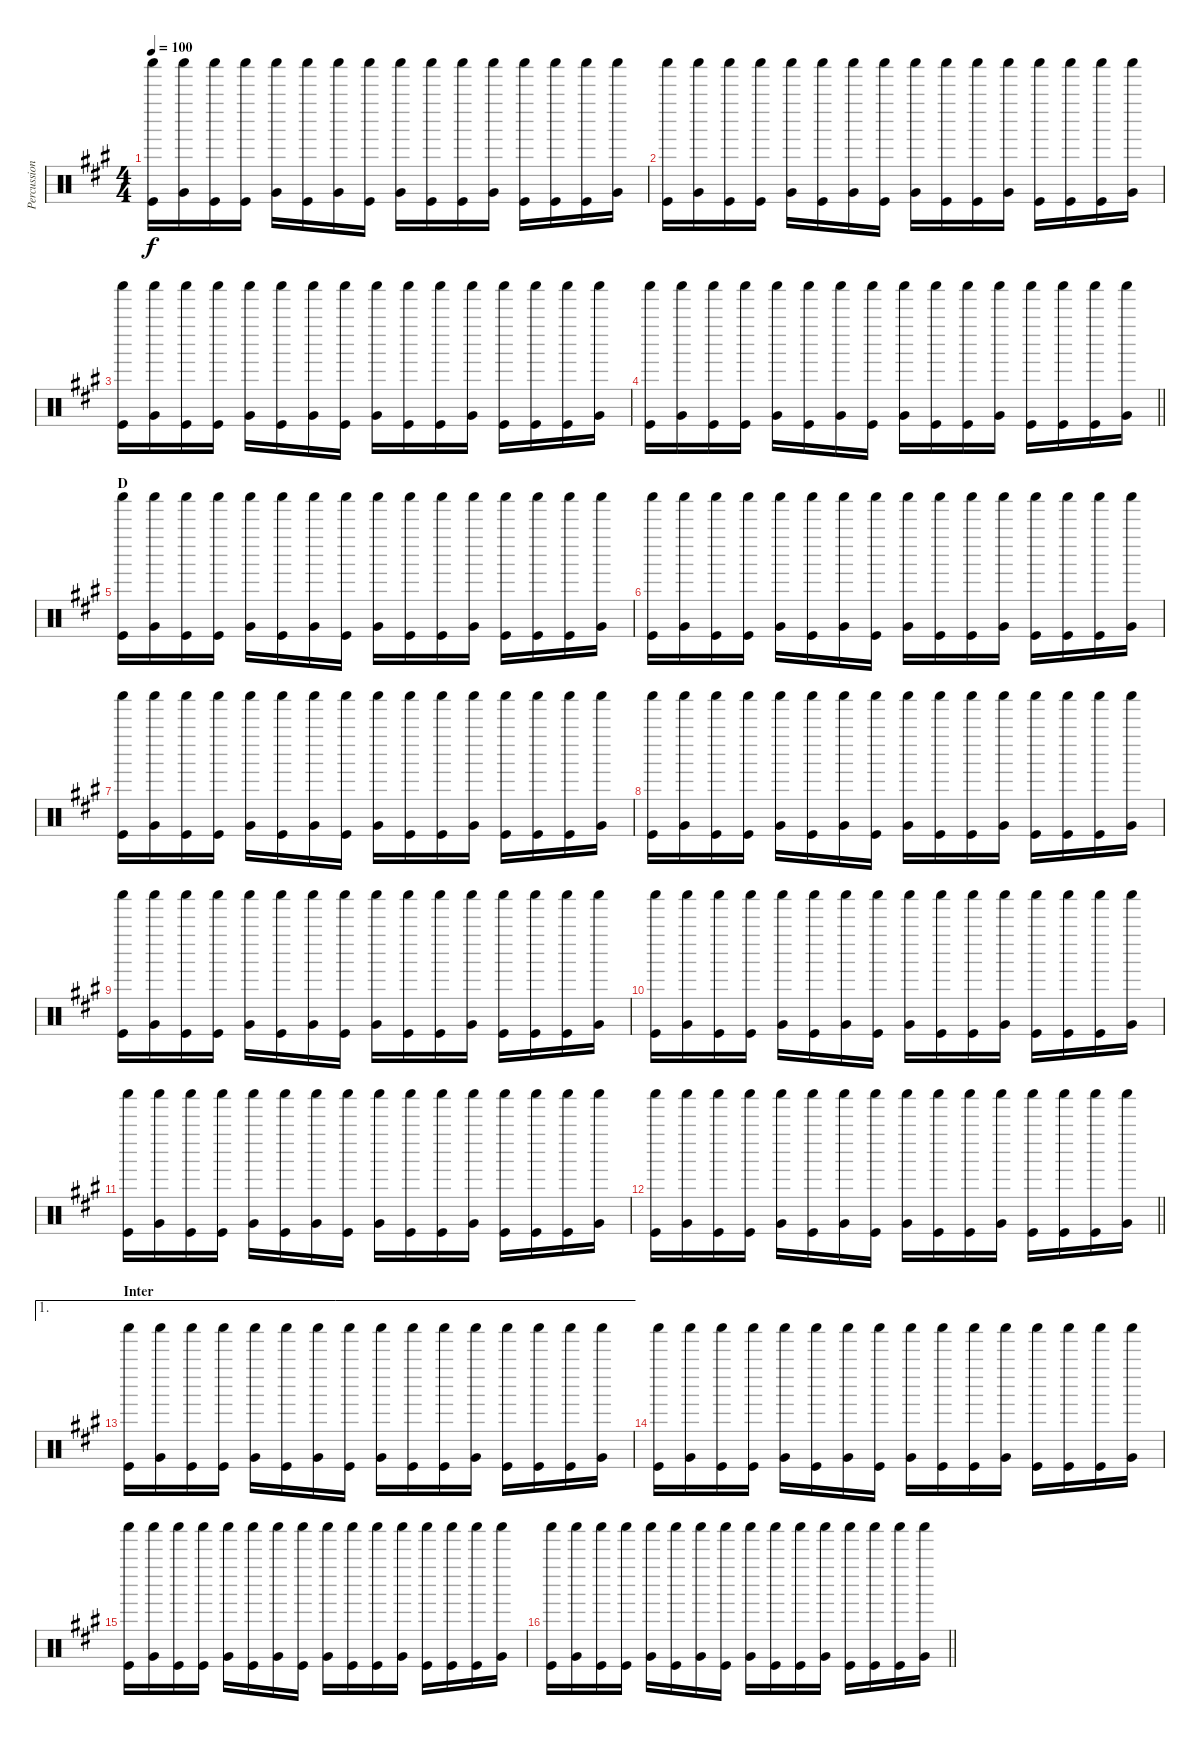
\track ("Percussion" "Percussion") {instrument percussion}
\staff {score}
\articulation defaults
\ts (4 4)
\tempo 100
\clef neutral
\ks a
("Shaker (hit)" "Kick (hit)").16{dy f} ("Shaker (hit)" "Very Low Tom (hit)").16 ("Shaker (hit)" "Kick (hit)").16 ("Shaker (hit)" "Kick (hit)").16 ("Shaker (hit)" "Very Low Tom (hit)").16 ("Shaker (hit)" "Kick (hit)").16 ("Shaker (hit)" "Very Low Tom (hit)").16 ("Shaker (hit)" "Kick (hit)").16 ("Shaker (hit)" "Very Low Tom (hit)").16 ("Shaker (hit)" "Kick (hit)").16 ("Shaker (hit)" "Kick (hit)").16 ("Shaker (hit)" "Very Low Tom (hit)").16 ("Shaker (hit)" "Kick (hit)").16 ("Shaker (hit)" "Kick (hit)").16 ("Shaker (hit)" "Kick (hit)").16 ("Shaker (hit)" "Very Low Tom (hit)").16 |
("Shaker (hit)" "Kick (hit)").16 ("Shaker (hit)" "Very Low Tom (hit)").16 ("Shaker (hit)" "Kick (hit)").16 ("Shaker (hit)" "Kick (hit)").16 ("Shaker (hit)" "Very Low Tom (hit)").16 ("Shaker (hit)" "Kick (hit)").16 ("Shaker (hit)" "Very Low Tom (hit)").16 ("Shaker (hit)" "Kick (hit)").16 ("Shaker (hit)" "Very Low Tom (hit)").16 ("Shaker (hit)" "Kick (hit)").16 ("Shaker (hit)" "Kick (hit)").16 ("Shaker (hit)" "Very Low Tom (hit)").16 ("Shaker (hit)" "Kick (hit)").16 ("Shaker (hit)" "Kick (hit)").16 ("Shaker (hit)" "Kick (hit)").16 ("Shaker (hit)" "Very Low Tom (hit)").16 |
("Shaker (hit)" "Kick (hit)").16 ("Shaker (hit)" "Very Low Tom (hit)").16 ("Shaker (hit)" "Kick (hit)").16 ("Shaker (hit)" "Kick (hit)").16 ("Shaker (hit)" "Very Low Tom (hit)").16 ("Shaker (hit)" "Kick (hit)").16 ("Shaker (hit)" "Very Low Tom (hit)").16 ("Shaker (hit)" "Kick (hit)").16 ("Shaker (hit)" "Very Low Tom (hit)").16 ("Shaker (hit)" "Kick (hit)").16 ("Shaker (hit)" "Kick (hit)").16 ("Shaker (hit)" "Very Low Tom (hit)").16 ("Shaker (hit)" "Kick (hit)").16 ("Shaker (hit)" "Kick (hit)").16 ("Shaker (hit)" "Kick (hit)").16 ("Shaker (hit)" "Very Low Tom (hit)").16 |
\barLineRight lightlight
("Shaker (hit)" "Kick (hit)").16 ("Shaker (hit)" "Very Low Tom (hit)").16 ("Shaker (hit)" "Kick (hit)").16 ("Shaker (hit)" "Kick (hit)").16 ("Shaker (hit)" "Very Low Tom (hit)").16 ("Shaker (hit)" "Kick (hit)").16 ("Shaker (hit)" "Very Low Tom (hit)").16 ("Shaker (hit)" "Kick (hit)").16 ("Shaker (hit)" "Very Low Tom (hit)").16 ("Shaker (hit)" "Kick (hit)").16 ("Shaker (hit)" "Kick (hit)").16 ("Shaker (hit)" "Very Low Tom (hit)").16 ("Shaker (hit)" "Kick (hit)").16 ("Shaker (hit)" "Kick (hit)").16 ("Shaker (hit)" "Kick (hit)").16 ("Shaker (hit)" "Very Low Tom (hit)").16 |
\section ("" "D")
("Shaker (hit)" "Kick (hit)").16 ("Shaker (hit)" "Very Low Tom (hit)").16 ("Shaker (hit)" "Kick (hit)").16 ("Shaker (hit)" "Kick (hit)").16 ("Shaker (hit)" "Very Low Tom (hit)").16 ("Shaker (hit)" "Kick (hit)").16 ("Shaker (hit)" "Very Low Tom (hit)").16 ("Shaker (hit)" "Kick (hit)").16 ("Shaker (hit)" "Very Low Tom (hit)").16 ("Shaker (hit)" "Kick (hit)").16 ("Shaker (hit)" "Kick (hit)").16 ("Shaker (hit)" "Very Low Tom (hit)").16 ("Shaker (hit)" "Kick (hit)").16 ("Shaker (hit)" "Kick (hit)").16 ("Shaker (hit)" "Kick (hit)").16 ("Shaker (hit)" "Very Low Tom (hit)").16 |
("Shaker (hit)" "Kick (hit)").16 ("Shaker (hit)" "Very Low Tom (hit)").16 ("Shaker (hit)" "Kick (hit)").16 ("Shaker (hit)" "Kick (hit)").16 ("Shaker (hit)" "Very Low Tom (hit)").16 ("Shaker (hit)" "Kick (hit)").16 ("Shaker (hit)" "Very Low Tom (hit)").16 ("Shaker (hit)" "Kick (hit)").16 ("Shaker (hit)" "Very Low Tom (hit)").16 ("Shaker (hit)" "Kick (hit)").16 ("Shaker (hit)" "Kick (hit)").16 ("Shaker (hit)" "Very Low Tom (hit)").16 ("Shaker (hit)" "Kick (hit)").16 ("Shaker (hit)" "Kick (hit)").16 ("Shaker (hit)" "Kick (hit)").16 ("Shaker (hit)" "Very Low Tom (hit)").16 |
("Shaker (hit)" "Kick (hit)").16 ("Shaker (hit)" "Very Low Tom (hit)").16 ("Shaker (hit)" "Kick (hit)").16 ("Shaker (hit)" "Kick (hit)").16 ("Shaker (hit)" "Very Low Tom (hit)").16 ("Shaker (hit)" "Kick (hit)").16 ("Shaker (hit)" "Very Low Tom (hit)").16 ("Shaker (hit)" "Kick (hit)").16 ("Shaker (hit)" "Very Low Tom (hit)").16 ("Shaker (hit)" "Kick (hit)").16 ("Shaker (hit)" "Kick (hit)").16 ("Shaker (hit)" "Very Low Tom (hit)").16 ("Shaker (hit)" "Kick (hit)").16 ("Shaker (hit)" "Kick (hit)").16 ("Shaker (hit)" "Kick (hit)").16 ("Shaker (hit)" "Very Low Tom (hit)").16 |
("Shaker (hit)" "Kick (hit)").16 ("Shaker (hit)" "Very Low Tom (hit)").16 ("Shaker (hit)" "Kick (hit)").16 ("Shaker (hit)" "Kick (hit)").16 ("Shaker (hit)" "Very Low Tom (hit)").16 ("Shaker (hit)" "Kick (hit)").16 ("Shaker (hit)" "Very Low Tom (hit)").16 ("Shaker (hit)" "Kick (hit)").16 ("Shaker (hit)" "Very Low Tom (hit)").16 ("Shaker (hit)" "Kick (hit)").16 ("Shaker (hit)" "Kick (hit)").16 ("Shaker (hit)" "Very Low Tom (hit)").16 ("Shaker (hit)" "Kick (hit)").16 ("Shaker (hit)" "Kick (hit)").16 ("Shaker (hit)" "Kick (hit)").16 ("Shaker (hit)" "Very Low Tom (hit)").16 |
("Shaker (hit)" "Kick (hit)").16 ("Shaker (hit)" "Very Low Tom (hit)").16 ("Shaker (hit)" "Kick (hit)").16 ("Shaker (hit)" "Kick (hit)").16 ("Shaker (hit)" "Very Low Tom (hit)").16 ("Shaker (hit)" "Kick (hit)").16 ("Shaker (hit)" "Very Low Tom (hit)").16 ("Shaker (hit)" "Kick (hit)").16 ("Shaker (hit)" "Very Low Tom (hit)").16 ("Shaker (hit)" "Kick (hit)").16 ("Shaker (hit)" "Kick (hit)").16 ("Shaker (hit)" "Very Low Tom (hit)").16 ("Shaker (hit)" "Kick (hit)").16 ("Shaker (hit)" "Kick (hit)").16 ("Shaker (hit)" "Kick (hit)").16 ("Shaker (hit)" "Very Low Tom (hit)").16 |
("Shaker (hit)" "Kick (hit)").16 ("Shaker (hit)" "Very Low Tom (hit)").16 ("Shaker (hit)" "Kick (hit)").16 ("Shaker (hit)" "Kick (hit)").16 ("Shaker (hit)" "Very Low Tom (hit)").16 ("Shaker (hit)" "Kick (hit)").16 ("Shaker (hit)" "Very Low Tom (hit)").16 ("Shaker (hit)" "Kick (hit)").16 ("Shaker (hit)" "Very Low Tom (hit)").16 ("Shaker (hit)" "Kick (hit)").16 ("Shaker (hit)" "Kick (hit)").16 ("Shaker (hit)" "Very Low Tom (hit)").16 ("Shaker (hit)" "Kick (hit)").16 ("Shaker (hit)" "Kick (hit)").16 ("Shaker (hit)" "Kick (hit)").16 ("Shaker (hit)" "Very Low Tom (hit)").16 |
("Shaker (hit)" "Kick (hit)").16 ("Shaker (hit)" "Very Low Tom (hit)").16 ("Shaker (hit)" "Kick (hit)").16 ("Shaker (hit)" "Kick (hit)").16 ("Shaker (hit)" "Very Low Tom (hit)").16 ("Shaker (hit)" "Kick (hit)").16 ("Shaker (hit)" "Very Low Tom (hit)").16 ("Shaker (hit)" "Kick (hit)").16 ("Shaker (hit)" "Very Low Tom (hit)").16 ("Shaker (hit)" "Kick (hit)").16 ("Shaker (hit)" "Kick (hit)").16 ("Shaker (hit)" "Very Low Tom (hit)").16 ("Shaker (hit)" "Kick (hit)").16 ("Shaker (hit)" "Kick (hit)").16 ("Shaker (hit)" "Kick (hit)").16 ("Shaker (hit)" "Very Low Tom (hit)").16 |
\barLineRight lightlight
("Shaker (hit)" "Kick (hit)").16 ("Shaker (hit)" "Very Low Tom (hit)").16 ("Shaker (hit)" "Kick (hit)").16 ("Shaker (hit)" "Kick (hit)").16 ("Shaker (hit)" "Very Low Tom (hit)").16 ("Shaker (hit)" "Kick (hit)").16 ("Shaker (hit)" "Very Low Tom (hit)").16 ("Shaker (hit)" "Kick (hit)").16 ("Shaker (hit)" "Very Low Tom (hit)").16 ("Shaker (hit)" "Kick (hit)").16 ("Shaker (hit)" "Kick (hit)").16 ("Shaker (hit)" "Very Low Tom (hit)").16 ("Shaker (hit)" "Kick (hit)").16 ("Shaker (hit)" "Kick (hit)").16 ("Shaker (hit)" "Kick (hit)").16 ("Shaker (hit)" "Very Low Tom (hit)").16 |
\ae 1
\section ("" "Inter")
("Shaker (hit)" "Kick (hit)").16 ("Shaker (hit)" "Very Low Tom (hit)").16 ("Shaker (hit)" "Kick (hit)").16 ("Shaker (hit)" "Kick (hit)").16 ("Shaker (hit)" "Very Low Tom (hit)").16 ("Shaker (hit)" "Kick (hit)").16 ("Shaker (hit)" "Very Low Tom (hit)").16 ("Shaker (hit)" "Kick (hit)").16 ("Shaker (hit)" "Very Low Tom (hit)").16 ("Shaker (hit)" "Kick (hit)").16 ("Shaker (hit)" "Kick (hit)").16 ("Shaker (hit)" "Very Low Tom (hit)").16 ("Shaker (hit)" "Kick (hit)").16 ("Shaker (hit)" "Kick (hit)").16 ("Shaker (hit)" "Kick (hit)").16 ("Shaker (hit)" "Very Low Tom (hit)").16 |
("Shaker (hit)" "Kick (hit)").16 ("Shaker (hit)" "Very Low Tom (hit)").16 ("Shaker (hit)" "Kick (hit)").16 ("Shaker (hit)" "Kick (hit)").16 ("Shaker (hit)" "Very Low Tom (hit)").16 ("Shaker (hit)" "Kick (hit)").16 ("Shaker (hit)" "Very Low Tom (hit)").16 ("Shaker (hit)" "Kick (hit)").16 ("Shaker (hit)" "Very Low Tom (hit)").16 ("Shaker (hit)" "Kick (hit)").16 ("Shaker (hit)" "Kick (hit)").16 ("Shaker (hit)" "Very Low Tom (hit)").16 ("Shaker (hit)" "Kick (hit)").16 ("Shaker (hit)" "Kick (hit)").16 ("Shaker (hit)" "Kick (hit)").16 ("Shaker (hit)" "Very Low Tom (hit)").16 |
("Shaker (hit)" "Kick (hit)").16 ("Shaker (hit)" "Very Low Tom (hit)").16 ("Shaker (hit)" "Kick (hit)").16 ("Shaker (hit)" "Kick (hit)").16 ("Shaker (hit)" "Very Low Tom (hit)").16 ("Shaker (hit)" "Kick (hit)").16 ("Shaker (hit)" "Very Low Tom (hit)").16 ("Shaker (hit)" "Kick (hit)").16 ("Shaker (hit)" "Very Low Tom (hit)").16 ("Shaker (hit)" "Kick (hit)").16 ("Shaker (hit)" "Kick (hit)").16 ("Shaker (hit)" "Very Low Tom (hit)").16 ("Shaker (hit)" "Kick (hit)").16 ("Shaker (hit)" "Kick (hit)").16 ("Shaker (hit)" "Kick (hit)").16 ("Shaker (hit)" "Very Low Tom (hit)").16 |
\barLineRight lightlight
("Shaker (hit)" "Kick (hit)").16 ("Shaker (hit)" "Very Low Tom (hit)").16 ("Shaker (hit)" "Kick (hit)").16 ("Shaker (hit)" "Kick (hit)").16 ("Shaker (hit)" "Very Low Tom (hit)").16 ("Shaker (hit)" "Kick (hit)").16 ("Shaker (hit)" "Very Low Tom (hit)").16 ("Shaker (hit)" "Kick (hit)").16 ("Shaker (hit)" "Very Low Tom (hit)").16 ("Shaker (hit)" "Kick (hit)").16 ("Shaker (hit)" "Kick (hit)").16 ("Shaker (hit)" "Very Low Tom (hit)").16 ("Shaker (hit)" "Kick (hit)").16 ("Shaker (hit)" "Kick (hit)").16 ("Shaker (hit)" "Kick (hit)").16 ("Shaker (hit)" "Very Low Tom (hit)").16
